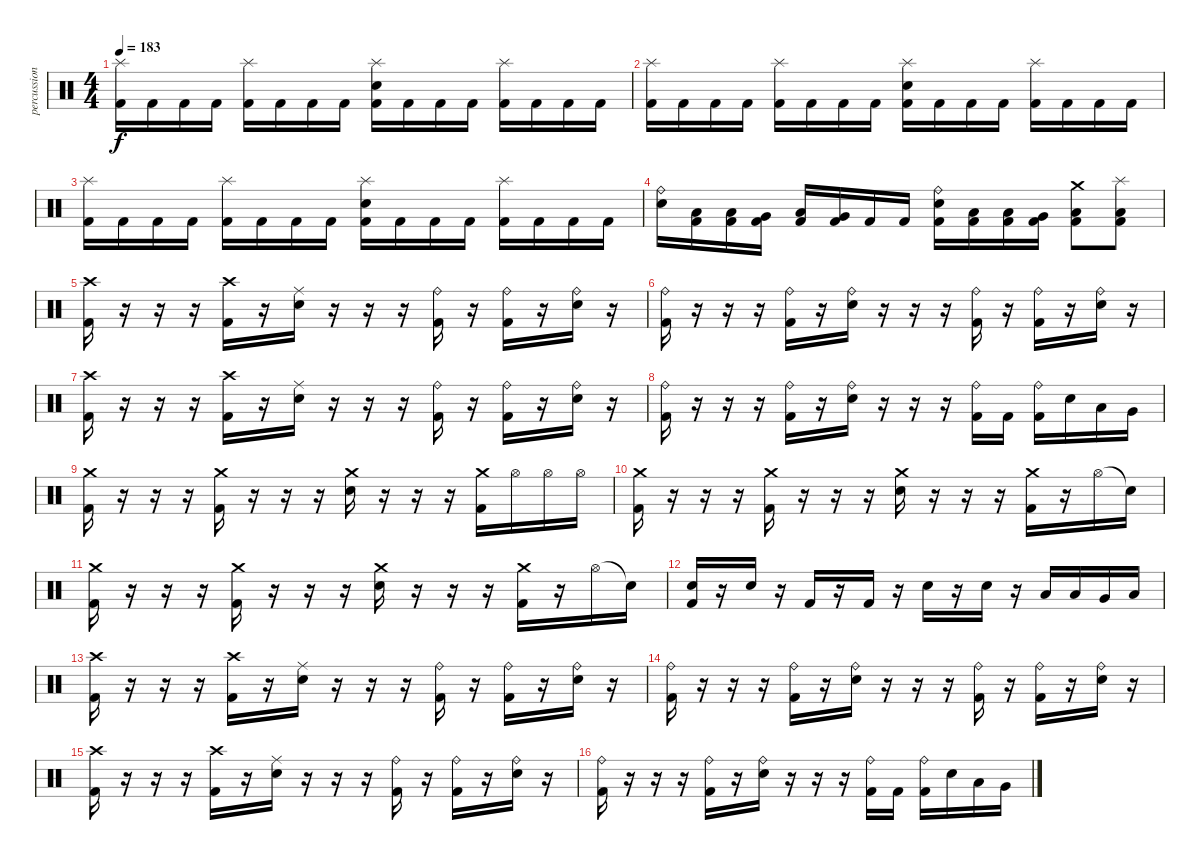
\track ("percussion" "percussion") {instrument percussion}
\staff {score}
\articulation defaults
\ts (4 4)
\tempo 183
\clef neutral
\ks c
("Splash (hit)" "Kick (hit) 2").16{dy f} "Kick (hit) 2".16 "Kick (hit) 2".16 "Kick (hit) 2".16 ("Splash (hit)" "Kick (hit) 2").16 "Kick (hit) 2".16 "Kick (hit) 2".16 "Kick (hit) 2".16 ("Splash (hit)" "Electric Snare (hit)" "Kick (hit) 2").16 "Kick (hit) 2".16 "Kick (hit) 2".16 "Kick (hit) 2".16 ("Splash (hit)" "Kick (hit) 2").16 "Kick (hit) 2".16 "Kick (hit) 2".16 "Kick (hit) 2".16 |
("Splash (hit)" "Kick (hit) 2").16 "Kick (hit) 2".16 "Kick (hit) 2".16 "Kick (hit) 2".16 ("Splash (hit)" "Kick (hit) 2").16 "Kick (hit) 2".16 "Kick (hit) 2".16 "Kick (hit) 2".16 ("Splash (hit)" "Electric Snare (hit)" "Kick (hit) 2").16 "Kick (hit) 2".16 "Kick (hit) 2".16 "Kick (hit) 2".16 ("Splash (hit)" "Kick (hit) 2").16 "Kick (hit) 2".16 "Kick (hit) 2".16 "Kick (hit) 2".16 |
("Splash (hit)" "Kick (hit) 2").16 "Kick (hit) 2".16 "Kick (hit) 2".16 "Kick (hit) 2".16 ("Splash (hit)" "Kick (hit) 2").16 "Kick (hit) 2".16 "Kick (hit) 2".16 "Kick (hit) 2".16 ("Splash (hit)" "Electric Snare (hit)" "Kick (hit) 2").16 "Kick (hit) 2".16 "Kick (hit) 2".16 "Kick (hit) 2".16 ("Splash (hit)" "Kick (hit) 2").16 "Kick (hit) 2".16 "Kick (hit) 2".16 "Kick (hit) 2".16 |
("Ride (bell)" "Electric Snare (hit)").16 ("Low Tom (hit)" "Kick (hit) 2").16 ("Low Tom (hit)" "Kick (hit) 2").16 ("Very Low Tom (hit)" "Kick (hit) 2").16 ("Low Floor Tom (hit)" "Kick (hit) 2").16 ("Very Low Tom (hit)" "Kick (hit) 2").16 "Kick (hit) 2".16 "Kick (hit) 2".16 ("Ride (bell)" "Electric Snare (hit)" "Kick (hit) 2").16 ("Low Tom (hit)" "Kick (hit) 2").16 ("Low Tom (hit)" "Kick (hit) 2").16 ("Very Low Tom (hit)" "Kick (hit) 2").16 ("Crash medium (hit)" "Low Floor Tom (hit)" "Kick (hit) 2").8 ("Splash (hit)" "Low Floor Tom (hit)" "Kick (hit) 2").8 |
("Crash high (hit)" "Kick (hit) 2").16 r.16 r.16 r.16 ("Crash high (hit)" "Kick (hit) 2").16 r.16 ("Ride (middle)" "Electric Snare (hit)").16 r.16 r.16 r.16 ("Ride (bell)" "Kick (hit) 2").16 r.16 ("Ride (bell)" "Kick (hit) 2").16 r.16 ("Ride (bell)" "Electric Snare (hit)").16 r.16 |
("Ride (bell)" "Kick (hit) 2").16 r.16 r.16 r.16 ("Ride (bell)" "Kick (hit) 2").16 r.16 ("Ride (bell)" "Electric Snare (hit)").16 r.16 r.16 r.16 ("Ride (bell)" "Kick (hit) 2").16 r.16 ("Ride (bell)" "Kick (hit) 2").16 r.16 ("Ride (bell)" "Electric Snare (hit)").16 r.16 |
("Crash high (hit)" "Kick (hit) 2").16 r.16 r.16 r.16 ("Crash high (hit)" "Kick (hit) 2").16 r.16 ("Ride (middle)" "Electric Snare (hit)").16 r.16 r.16 r.16 ("Ride (bell)" "Kick (hit) 2").16 r.16 ("Ride (bell)" "Kick (hit) 2").16 r.16 ("Ride (bell)" "Electric Snare (hit)").16 r.16 |
("Ride (bell)" "Kick (hit) 2").16 r.16 r.16 r.16 ("Ride (bell)" "Kick (hit) 2").16 r.16 ("Ride (bell)" "Electric Snare (hit)").16 r.16 r.16 r.16 ("Ride (bell)" "Kick (hit) 2").16 "Kick (hit) 2".16 ("Ride (bell)" "Kick (hit) 2").16 "Electric Snare (hit)".16 "Low Tom (hit)".16 "Very Low Tom (hit)".16 |
("Crash medium (hit)" "Kick (hit) 2").16 r.16 r.16 r.16 ("Crash medium (hit)" "Kick (hit) 2").16 r.16 r.16 r.16 ("Crash medium (hit)" "Electric Snare (hit)").16 r.16 r.16 r.16 ("Crash medium (hit)" "Kick (hit) 2").16 "Hi-Hat (open)".16 "Hi-Hat (open)".16 "Hi-Hat (open)".16 |
("Crash medium (hit)" "Kick (hit) 2").16 r.16 r.16 r.16 ("Crash medium (hit)" "Kick (hit) 2").16 r.16 r.16 r.16 ("Crash medium (hit)" "Electric Snare (hit)").16 r.16 r.16 r.16 ("Crash medium (hit)" "Kick (hit) 2").16 r.16 "Hi-Hat (open)".16 "Snare (hit)"{t}.16 |
("Crash medium (hit)" "Kick (hit) 2").16 r.16 r.16 r.16 ("Crash medium (hit)" "Kick (hit) 2").16 r.16 r.16 r.16 ("Crash medium (hit)" "Electric Snare (hit)").16 r.16 r.16 r.16 ("Crash medium (hit)" "Kick (hit) 2").16 r.16 "Hi-Hat (open)".16 "Snare (hit)"{t}.16 |
("Electric Snare (hit)" "Kick (hit) 2").16 r.16 "Electric Snare (hit)".16 r.16 "Kick (hit) 2".16 r.16 "Kick (hit) 2".16 r.16 "Electric Snare (hit)".16 r.16 "Electric Snare (hit)".16 r.16 "Low Tom (hit)".16 "Low Tom (hit)".16 "Very Low Tom (hit)".16 "Low Floor Tom (hit)".16 |
("Crash high (hit)" "Kick (hit) 2").16 r.16 r.16 r.16 ("Crash high (hit)" "Kick (hit) 2").16 r.16 ("Ride (middle)" "Electric Snare (hit)").16 r.16 r.16 r.16 ("Ride (bell)" "Kick (hit) 2").16 r.16 ("Ride (bell)" "Kick (hit) 2").16 r.16 ("Ride (bell)" "Electric Snare (hit)").16 r.16 |
("Ride (bell)" "Kick (hit) 2").16 r.16 r.16 r.16 ("Ride (bell)" "Kick (hit) 2").16 r.16 ("Ride (bell)" "Electric Snare (hit)").16 r.16 r.16 r.16 ("Ride (bell)" "Kick (hit) 2").16 r.16 ("Ride (bell)" "Kick (hit) 2").16 r.16 ("Ride (bell)" "Electric Snare (hit)").16 r.16 |
("Crash high (hit)" "Kick (hit) 2").16 r.16 r.16 r.16 ("Crash high (hit)" "Kick (hit) 2").16 r.16 ("Ride (middle)" "Electric Snare (hit)").16 r.16 r.16 r.16 ("Ride (bell)" "Kick (hit) 2").16 r.16 ("Ride (bell)" "Kick (hit) 2").16 r.16 ("Ride (bell)" "Electric Snare (hit)").16 r.16 |
("Ride (bell)" "Kick (hit) 2").16 r.16 r.16 r.16 ("Ride (bell)" "Kick (hit) 2").16 r.16 ("Ride (bell)" "Electric Snare (hit)").16 r.16 r.16 r.16 ("Ride (bell)" "Kick (hit) 2").16 "Kick (hit) 2".16 ("Ride (bell)" "Kick (hit) 2").16 "Electric Snare (hit)".16 "Low Tom (hit)".16 "Very Low Tom (hit)".16
